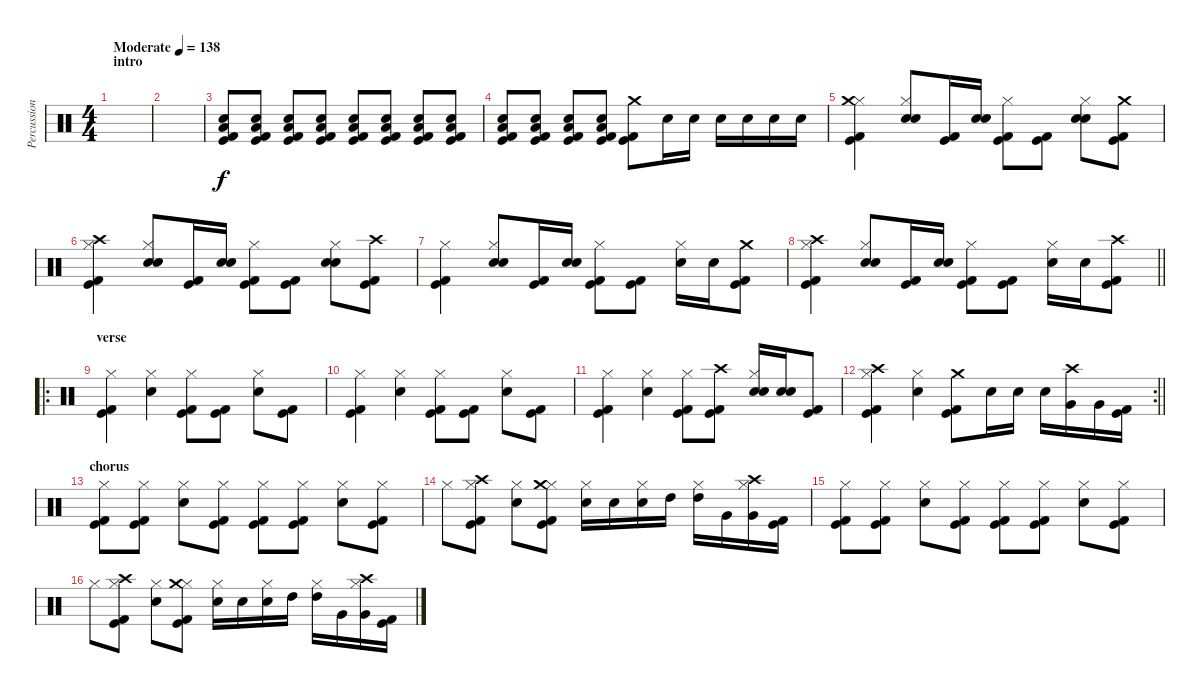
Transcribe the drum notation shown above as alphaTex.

\track ("Percussion" "Percussion") {instrument percussion}
\staff {score}
\articulation defaults
\ts (4 4)
\section ("" "intro")
\tempo (138 "Moderate")
\clef neutral
\ks c
|
|
("Kick (hit) 2" "Low Floor Tom (hit)" "Snare (hit) 2" "Kick (hit)").8 ("Kick (hit) 2" "Low Floor Tom (hit)" "Snare (hit) 2" "Kick (hit)").8 ("Kick (hit) 2" "Low Floor Tom (hit)" "Snare (hit) 2" "Kick (hit)").8 ("Kick (hit) 2" "Low Floor Tom (hit)" "Snare (hit) 2" "Kick (hit)").8 ("Kick (hit) 2" "Low Floor Tom (hit)" "Snare (hit) 2" "Kick (hit)").8 ("Kick (hit) 2" "Low Floor Tom (hit)" "Snare (hit) 2" "Kick (hit)").8 ("Kick (hit) 2" "Low Floor Tom (hit)" "Snare (hit) 2" "Kick (hit)").8 ("Kick (hit) 2" "Low Floor Tom (hit)" "Snare (hit) 2" "Kick (hit)").8 |
("Kick (hit) 2" "Low Floor Tom (hit)" "Snare (hit) 2" "Kick (hit)").8 ("Kick (hit) 2" "Low Floor Tom (hit)" "Snare (hit) 2" "Kick (hit)").8 ("Kick (hit) 2" "Low Floor Tom (hit)" "Snare (hit) 2" "Kick (hit)").8 ("Kick (hit) 2" "Low Floor Tom (hit)" "Snare (hit) 2" "Kick (hit)").8 ("Crash medium (hit)" "Kick (hit) 2" "Kick (hit)").8 "Snare (hit) 2".16 "Snare (hit) 2".16 "Snare (hit) 2".16 "Snare (hit) 2".16 "Snare (hit) 2".16 "Snare (hit) 2".16 |
("Hi-Hat (closed)" "Crash medium (hit)" "Kick (hit) 2" "Kick (hit)").4 ("Hi-Hat (closed)" "Electric Snare (hit)" "Snare (hit) 2").8 ("Kick (hit) 2" "Kick (hit)").16 ("Electric Snare (hit)" "Snare (hit) 2").16 ("Hi-Hat (closed)" "Kick (hit) 2" "Kick (hit)").8 ("Kick (hit) 2" "Kick (hit)").8 ("Hi-Hat (closed)" "Snare (hit) 2" "Electric Snare (hit)").8 ("Crash medium (hit)" "Kick (hit) 2" "Kick (hit)").8 |
("Hi-Hat (closed)" "Crash high (hit)" "Kick (hit) 2" "Kick (hit)").4 ("Hi-Hat (closed)" "Electric Snare (hit)" "Snare (hit) 2").8 ("Kick (hit) 2" "Kick (hit)").16 ("Electric Snare (hit)" "Snare (hit) 2").16 ("Hi-Hat (closed)" "Kick (hit) 2" "Kick (hit)").8 ("Kick (hit) 2" "Kick (hit)").8 ("Hi-Hat (closed)" "Snare (hit) 2" "Electric Snare (hit)").8 ("Crash high (hit)" "Kick (hit) 2" "Kick (hit)").8 |
("Hi-Hat (closed)" "Kick (hit) 2" "Kick (hit)").4 ("Hi-Hat (closed)" "Electric Snare (hit)" "Snare (hit) 2").8 ("Kick (hit) 2" "Kick (hit)").16 ("Electric Snare (hit)" "Snare (hit) 2").16 ("Hi-Hat (closed)" "Kick (hit) 2" "Kick (hit)").8 ("Kick (hit) 2" "Kick (hit)").8 ("Hi-Hat (closed)" "Snare (hit) 2").16 "Snare (hit) 2".16 ("Crash medium (hit)" "Kick (hit)" "Kick (hit) 2").8 |
\barLineRight lightlight
("Hi-Hat (closed)" "Crash high (hit)" "Kick (hit) 2" "Kick (hit)").4 ("Hi-Hat (closed)" "Electric Snare (hit)" "Snare (hit) 2").8 ("Kick (hit) 2" "Kick (hit)").16 ("Electric Snare (hit)" "Snare (hit) 2").16 ("Hi-Hat (closed)" "Kick (hit) 2" "Kick (hit)").8 ("Kick (hit) 2" "Kick (hit)").8 ("Hi-Hat (closed)" "Snare (hit) 2").16 "Snare (hit) 2".16 ("Crash high (hit)" "Kick (hit)" "Kick (hit) 2").8 |
\ro
\section ("" "verse")
("Hi-Hat (closed)" "Kick (hit) 2" "Kick (hit)").4 ("Hi-Hat (closed)" "Snare (hit) 2").4 ("Hi-Hat (closed)" "Kick (hit) 2" "Kick (hit)").8 ("Kick (hit) 2" "Kick (hit)").8 ("Hi-Hat (closed)" "Snare (hit) 2").8 ("Kick (hit) 2" "Kick (hit)").8 |
("Hi-Hat (closed)" "Kick (hit) 2" "Kick (hit)").4 ("Hi-Hat (closed)" "Snare (hit) 2").4 ("Hi-Hat (closed)" "Kick (hit) 2" "Kick (hit)").8 ("Kick (hit) 2" "Kick (hit)").8 ("Hi-Hat (closed)" "Snare (hit) 2").8 ("Kick (hit) 2" "Kick (hit)").8 |
("Hi-Hat (closed)" "Kick (hit) 2" "Kick (hit)").4 ("Hi-Hat (closed)" "Snare (hit) 2").4 ("Hi-Hat (closed)" "Kick (hit) 2" "Kick (hit)").8 ("Crash high (hit)" "Kick (hit) 2" "Kick (hit)").8 ("Hi-Hat (closed)" "Electric Snare (hit)" "Snare (hit) 2").16 ("Electric Snare (hit)" "Snare (hit) 2").16 ("Kick (hit) 2" "Kick (hit)").8 |
\rc 2
\barLineRight lightlight
("Hi-Hat (closed)" "Crash high (hit)" "Kick (hit) 2" "Kick (hit)").4 ("Hi-Hat (closed)" "Snare (hit) 2").4 ("Crash medium (hit)" "Kick (hit) 2" "Kick (hit)").8 "Snare (hit) 2".16 "Snare (hit) 2".16 "Snare (hit) 2".16 ("Crash high (hit)" "Very Low Tom (hit)").16 "Very Low Tom (hit)".16 ("Kick (hit) 2" "Kick (hit)").16 |
\section ("" "chorus")
("Hi-Hat (closed)" "Kick (hit) 2" "Kick (hit)").8 ("Hi-Hat (closed)" "Kick (hit) 2" "Kick (hit)").8 ("Hi-Hat (closed)" "Snare (hit) 2").8 ("Hi-Hat (closed)" "Kick (hit) 2" "Kick (hit)").8 ("Hi-Hat (closed)" "Kick (hit) 2" "Kick (hit)").8 ("Hi-Hat (closed)" "Kick (hit) 2" "Kick (hit)").8 ("Hi-Hat (closed)" "Snare (hit) 2").8 ("Hi-Hat (closed)" "Kick (hit) 2" "Kick (hit)").8 |
"Hi-Hat (closed)".8 ("Hi-Hat (closed)" "Crash high (hit)" "Kick (hit) 2" "Kick (hit)").8 ("Hi-Hat (closed)" "Snare (hit) 2").8 ("Hi-Hat (closed)" "Crash medium (hit)" "Kick (hit) 2" "Kick (hit)").8 ("Hi-Hat (closed)" "Snare (hit) 2").16 "Snare (hit) 2".16 ("Hi-Hat (closed)" "Snare (hit) 2").16 "High Tom (hit)".16 ("Hi-Hat (closed)" "High Tom (hit)").16 "Very Low Tom (hit)".16 ("Hi-Hat (closed)" "Crash high (hit)" "Very Low Tom (hit)").16 ("Kick (hit)" "Kick (hit) 2").16 |
("Hi-Hat (closed)" "Kick (hit) 2" "Kick (hit)").8 ("Hi-Hat (closed)" "Kick (hit) 2" "Kick (hit)").8 ("Hi-Hat (closed)" "Snare (hit) 2").8 ("Hi-Hat (closed)" "Kick (hit) 2" "Kick (hit)").8 ("Hi-Hat (closed)" "Kick (hit) 2" "Kick (hit)").8 ("Hi-Hat (closed)" "Kick (hit) 2" "Kick (hit)").8 ("Hi-Hat (closed)" "Snare (hit) 2").8 ("Hi-Hat (closed)" "Kick (hit) 2" "Kick (hit)").8 |
"Hi-Hat (closed)".8 ("Hi-Hat (closed)" "Crash high (hit)" "Kick (hit) 2" "Kick (hit)").8 ("Hi-Hat (closed)" "Snare (hit) 2").8 ("Hi-Hat (closed)" "Crash medium (hit)" "Kick (hit) 2" "Kick (hit)").8 ("Hi-Hat (closed)" "Snare (hit) 2").16 "Snare (hit) 2".16 ("Hi-Hat (closed)" "Snare (hit) 2").16 "High Tom (hit)".16 ("Hi-Hat (closed)" "High Tom (hit)").16 "Very Low Tom (hit)".16 ("Hi-Hat (closed)" "Crash high (hit)" "Very Low Tom (hit)").16 ("Kick (hit)" "Kick (hit) 2").16
